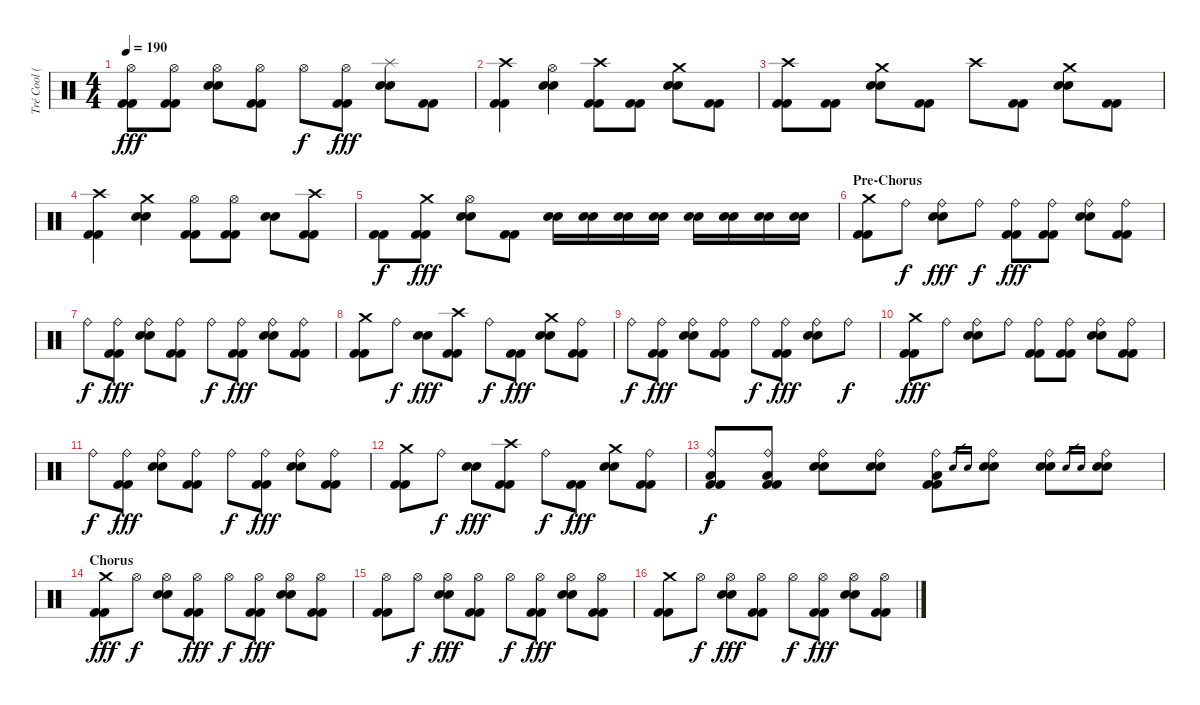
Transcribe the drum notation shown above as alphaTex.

\track ("Tré Cool (Drums)" "Tré Cool (") {instrument percussion}
\staff {score}
\articulation defaults
\ts (4 4)
\tempo 190
\clef neutral
\ks c
("Kick (hit) 2" "Kick (hit) 2" "Hi-Hat (open)").8{dy fff} ("Kick (hit) 2" "Kick (hit) 2" "Hi-Hat (open)").8 ("Electric Snare (hit)" "Electric Snare (hit)" "Hi-Hat (open)").8 ("Kick (hit) 2" "Kick (hit) 2" "Hi-Hat (open)").8 "Hi-Hat (open)".8{dy f} ("Kick (hit) 2" "Kick (hit) 2" "Hi-Hat (open)").8{dy fff} ("Electric Snare (hit)" "Electric Snare (hit)" "Splash (hit)").8 ("Kick (hit) 2" "Kick (hit) 2").8 |
("Kick (hit) 2" "Kick (hit) 2" "Crash high (hit)").4 ("Electric Snare (hit)" "Electric Snare (hit)" "Hi-Hat (open)").4 ("Kick (hit) 2" "Kick (hit) 2" "Crash high (hit)").8 ("Kick (hit) 2" "Kick (hit) 2").8 ("Electric Snare (hit)" "Electric Snare (hit)" "Crash medium (hit)").8 ("Kick (hit) 2" "Kick (hit) 2").8 |
("Kick (hit) 2" "Kick (hit) 2" "Crash high (hit)").8 ("Kick (hit) 2" "Kick (hit) 2").8 ("Electric Snare (hit)" "Electric Snare (hit)" "Crash medium (hit)").8 ("Kick (hit) 2" "Kick (hit) 2").8 "Crash high (hit)".8 ("Kick (hit) 2" "Kick (hit) 2").8 ("Electric Snare (hit)" "Electric Snare (hit)" "Crash medium (hit)").8 ("Kick (hit) 2" "Kick (hit) 2").8 |
("Kick (hit) 2" "Kick (hit) 2" "Crash high (hit)").4 ("Electric Snare (hit)" "Electric Snare (hit)" "Crash medium (hit)").4 ("Kick (hit) 2" "Kick (hit) 2" "Hi-Hat (open)").8 ("Kick (hit) 2" "Kick (hit) 2" "Hi-Hat (open)").8 ("Electric Snare (hit)" "Electric Snare (hit)").8 ("Kick (hit) 2" "Kick (hit) 2" "Crash high (hit)").8 |
("Kick (hit) 2" "Kick (hit) 2").8{dy f} ("Kick (hit) 2" "Kick (hit) 2" "Crash medium (hit)").8{dy fff} ("Electric Snare (hit)" "Electric Snare (hit)" "Hi-Hat (open)").8 ("Kick (hit) 2" "Kick (hit) 2").8 ("Electric Snare (hit)" "Electric Snare (hit)").16 ("Electric Snare (hit)" "Electric Snare (hit)").16 ("Electric Snare (hit)" "Electric Snare (hit)").16 ("Electric Snare (hit)" "Electric Snare (hit)").16 ("Electric Snare (hit)" "Electric Snare (hit)").16 ("Electric Snare (hit)" "Electric Snare (hit)").16 ("Electric Snare (hit)" "Electric Snare (hit)").16 ("Electric Snare (hit)" "Electric Snare (hit)").16 |
\section ("" "Pre-Chorus")
("Kick (hit) 2" "Kick (hit) 2" "Crash medium (hit)").8 "Ride (bell)".8{dy f} ("Electric Snare (hit)" "Electric Snare (hit)" "Ride (bell)").8{dy fff} "Ride (bell)".8{dy f} ("Kick (hit) 2" "Kick (hit) 2" "Ride (bell)").8{dy fff} ("Kick (hit) 2" "Kick (hit) 2" "Ride (bell)").8 ("Electric Snare (hit)" "Electric Snare (hit)" "Ride (bell)").8 ("Kick (hit) 2" "Kick (hit) 2" "Ride (bell)").8 |
"Ride (bell)".8{dy f} ("Kick (hit) 2" "Kick (hit) 2" "Ride (bell)").8{dy fff} ("Electric Snare (hit)" "Electric Snare (hit)" "Ride (bell)").8 ("Kick (hit) 2" "Kick (hit) 2" "Ride (bell)").8 "Ride (bell)".8{dy f} ("Kick (hit) 2" "Kick (hit) 2" "Ride (bell)").8{dy fff} ("Electric Snare (hit)" "Electric Snare (hit)" "Ride (bell)").8 ("Kick (hit) 2" "Kick (hit) 2" "Ride (bell)").8 |
("Kick (hit) 2" "Kick (hit) 2" "Crash medium (hit)").8 "Ride (bell)".8{dy f} ("Electric Snare (hit)" "Electric Snare (hit)").8{dy fff} ("Kick (hit) 2" "Kick (hit) 2" "Crash high (hit)").8 "Ride (bell)".8{dy f} ("Kick (hit) 2" "Kick (hit) 2").8{dy fff} ("Electric Snare (hit)" "Electric Snare (hit)" "Crash medium (hit)").8 ("Kick (hit) 2" "Kick (hit) 2" "Ride (bell)").8 |
"Ride (bell)".8{dy f} ("Kick (hit) 2" "Kick (hit) 2" "Ride (bell)").8{dy fff} ("Electric Snare (hit)" "Electric Snare (hit)" "Ride (bell)").8 ("Kick (hit) 2" "Kick (hit) 2" "Ride (bell)").8 "Ride (bell)".8{dy f} ("Kick (hit) 2" "Kick (hit) 2" "Ride (bell)").8{dy fff} ("Electric Snare (hit)" "Electric Snare (hit)" "Ride (bell)").8 "Ride (bell)".8{dy f} |
("Kick (hit) 2" "Kick (hit) 2" "Crash medium (hit)").8{dy fff} "Ride (bell)".8 ("Electric Snare (hit)" "Electric Snare (hit)" "Ride (bell)").8 "Ride (bell)".8 ("Kick (hit) 2" "Kick (hit) 2" "Ride (bell)").8 ("Kick (hit) 2" "Kick (hit) 2" "Ride (bell)").8 ("Electric Snare (hit)" "Electric Snare (hit)" "Ride (bell)").8 ("Kick (hit) 2" "Kick (hit) 2" "Ride (bell)").8 |
"Ride (bell)".8{dy f} ("Kick (hit) 2" "Kick (hit) 2" "Ride (bell)").8{dy fff} ("Electric Snare (hit)" "Electric Snare (hit)" "Ride (bell)").8 ("Kick (hit) 2" "Kick (hit) 2" "Ride (bell)").8 "Ride (bell)".8{dy f} ("Kick (hit) 2" "Kick (hit) 2" "Ride (bell)").8{dy fff} ("Electric Snare (hit)" "Electric Snare (hit)" "Ride (bell)").8 ("Kick (hit) 2" "Kick (hit) 2" "Ride (bell)").8 |
("Kick (hit) 2" "Kick (hit) 2" "Crash medium (hit)").8 "Ride (bell)".8{dy f} ("Electric Snare (hit)" "Electric Snare (hit)").8{dy fff} ("Kick (hit) 2" "Kick (hit) 2" "Crash high (hit)").8 "Ride (bell)".8{dy f} ("Kick (hit) 2" "Kick (hit) 2").8{dy fff} ("Electric Snare (hit)" "Electric Snare (hit)" "Crash medium (hit)").8 ("Kick (hit) 2" "Kick (hit) 2" "Ride (bell)").8 |
("Kick (hit) 2" "Kick (hit) 2" "Low Floor Tom (hit)" "Ride (bell)").8{dy f} ("Kick (hit) 2" "Kick (hit) 2" "Low Floor Tom (hit)" "Ride (bell)").8 ("Electric Snare (hit)" "Electric Snare (hit)" "Ride (bell)").8 ("Electric Snare (hit)" "Electric Snare (hit)" "Ride (bell)").8 ("Kick (hit) 2" "Kick (hit) 2" "Low Floor Tom (hit)" "Ride (bell)").8 "Electric Snare (hit)".16{gr} "Electric Snare (hit)".16{gr} ("Electric Snare (hit)" "Electric Snare (hit)" "Ride (bell)").8 ("Electric Snare (hit)" "Electric Snare (hit)" "Ride (bell)").8 "Electric Snare (hit)".16{gr} "Electric Snare (hit)".16{gr} ("Electric Snare (hit)" "Electric Snare (hit)" "Ride (bell)").8 |
\section ("" "Chorus")
("Kick (hit) 2" "Kick (hit) 2" "Crash medium (hit)").8{dy fff} "Hi-Hat (open)".8{dy f} ("Electric Snare (hit)" "Electric Snare (hit)" "Hi-Hat (open)").8 ("Kick (hit) 2" "Kick (hit) 2" "Hi-Hat (open)").8{dy fff} "Hi-Hat (open)".8{dy f} ("Kick (hit) 2" "Kick (hit) 2" "Hi-Hat (open)").8{dy fff} ("Electric Snare (hit)" "Electric Snare (hit)" "Hi-Hat (open)").8 ("Kick (hit) 2" "Kick (hit) 2" "Hi-Hat (open)").8 |
("Kick (hit) 2" "Kick (hit) 2" "Hi-Hat (open)").8 "Hi-Hat (open)".8{dy f} ("Electric Snare (hit)" "Electric Snare (hit)" "Hi-Hat (open)").8{dy fff} ("Kick (hit) 2" "Kick (hit) 2" "Hi-Hat (open)").8 "Hi-Hat (open)".8{dy f} ("Kick (hit) 2" "Kick (hit) 2" "Hi-Hat (open)").8{dy fff} ("Electric Snare (hit)" "Electric Snare (hit)" "Hi-Hat (open)").8 ("Kick (hit) 2" "Kick (hit) 2" "Hi-Hat (open)").8 |
("Kick (hit) 2" "Kick (hit) 2" "Crash medium (hit)").8 "Hi-Hat (open)".8{dy f} ("Electric Snare (hit)" "Electric Snare (hit)" "Hi-Hat (open)").8{dy fff} ("Kick (hit) 2" "Kick (hit) 2" "Hi-Hat (open)").8 "Hi-Hat (open)".8{dy f} ("Kick (hit) 2" "Kick (hit) 2" "Hi-Hat (open)").8{dy fff} ("Electric Snare (hit)" "Electric Snare (hit)" "Hi-Hat (open)").8 ("Kick (hit) 2" "Kick (hit) 2" "Hi-Hat (open)").8
